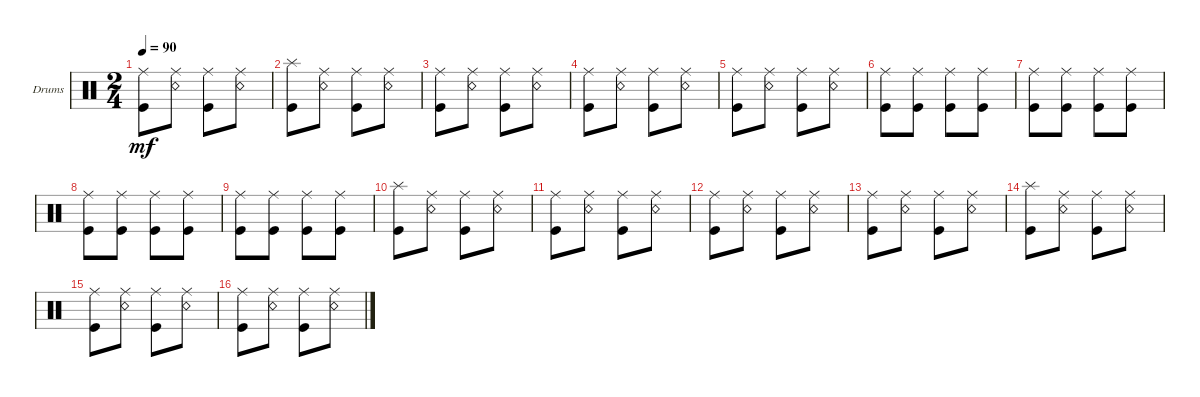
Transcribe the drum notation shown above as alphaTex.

\defaultSystemsLayout 4
\bracketExtendMode groupsimilarinstruments
\firstSystemTrackNameOrientation horizontal
\otherSystemsTrackNameOrientation horizontal
\track ("Drumkit" "Drums") {instrument percussion}
\staff {score}
\articulation defaults
\ts (2 4)
\tempo 90
\clef neutral
\ks c
("Kick (hit)" "Ride (middle)").8{dy mf} ("Ride (middle)" "Snare (rim shot)").8 ("Ride (middle)" "Kick (hit)").8 ("Ride (middle)" "Snare (rim shot)").8 |
("Kick (hit)" "Splash (hit)").8 ("Ride (middle)" "Snare (rim shot)").8 ("Ride (middle)" "Kick (hit)").8 ("Ride (middle)" "Snare (rim shot)").8 |
("Kick (hit)" "Ride (middle)").8 ("Ride (middle)" "Snare (rim shot)").8 ("Ride (middle)" "Kick (hit)").8 ("Ride (middle)" "Snare (rim shot)").8 |
("Kick (hit)" "Ride (middle)").8 ("Ride (middle)" "Snare (rim shot)").8 ("Ride (middle)" "Kick (hit)").8 ("Ride (middle)" "Snare (rim shot)").8 |
("Kick (hit)" "Ride (middle)").8 ("Ride (middle)" "Snare (rim shot)").8 ("Ride (middle)" "Kick (hit)").8 ("Ride (middle)" "Snare (rim shot)").8 |
("Kick (hit)" "Ride (middle)").8 ("Kick (hit)" "Ride (middle)").8 ("Kick (hit)" "Ride (middle)").8 ("Kick (hit)" "Ride (middle)").8 |
("Kick (hit)" "Ride (middle)").8 ("Kick (hit)" "Ride (middle)").8 ("Kick (hit)" "Ride (middle)").8 ("Kick (hit)" "Ride (middle)").8 |
("Kick (hit)" "Ride (middle)").8 ("Kick (hit)" "Ride (middle)").8 ("Kick (hit)" "Ride (middle)").8 ("Kick (hit)" "Ride (middle)").8 |
("Kick (hit)" "Ride (middle)").8 ("Kick (hit)" "Ride (middle)").8 ("Kick (hit)" "Ride (middle)").8 ("Kick (hit)" "Ride (middle)").8 |
("Kick (hit)" "Splash (hit)").8 ("Ride (middle)" "Snare (rim shot)").8 ("Ride (middle)" "Kick (hit)").8 ("Ride (middle)" "Snare (rim shot)").8 |
("Kick (hit)" "Ride (middle)").8 ("Ride (middle)" "Snare (rim shot)").8 ("Ride (middle)" "Kick (hit)").8 ("Ride (middle)" "Snare (rim shot)").8 |
("Kick (hit)" "Ride (middle)").8 ("Ride (middle)" "Snare (rim shot)").8 ("Ride (middle)" "Kick (hit)").8 ("Ride (middle)" "Snare (rim shot)").8 |
("Kick (hit)" "Ride (middle)").8 ("Ride (middle)" "Snare (rim shot)").8 ("Ride (middle)" "Kick (hit)").8 ("Ride (middle)" "Snare (rim shot)").8 |
("Kick (hit)" "Splash (hit)").8 ("Ride (middle)" "Snare (rim shot)").8 ("Ride (middle)" "Kick (hit)").8 ("Ride (middle)" "Snare (rim shot)").8 |
("Kick (hit)" "Ride (middle)").8 ("Ride (middle)" "Snare (rim shot)").8 ("Ride (middle)" "Kick (hit)").8 ("Ride (middle)" "Snare (rim shot)").8 |
("Kick (hit)" "Ride (middle)").8 ("Ride (middle)" "Snare (rim shot)").8 ("Ride (middle)" "Kick (hit)").8 ("Ride (middle)" "Snare (rim shot)").8
